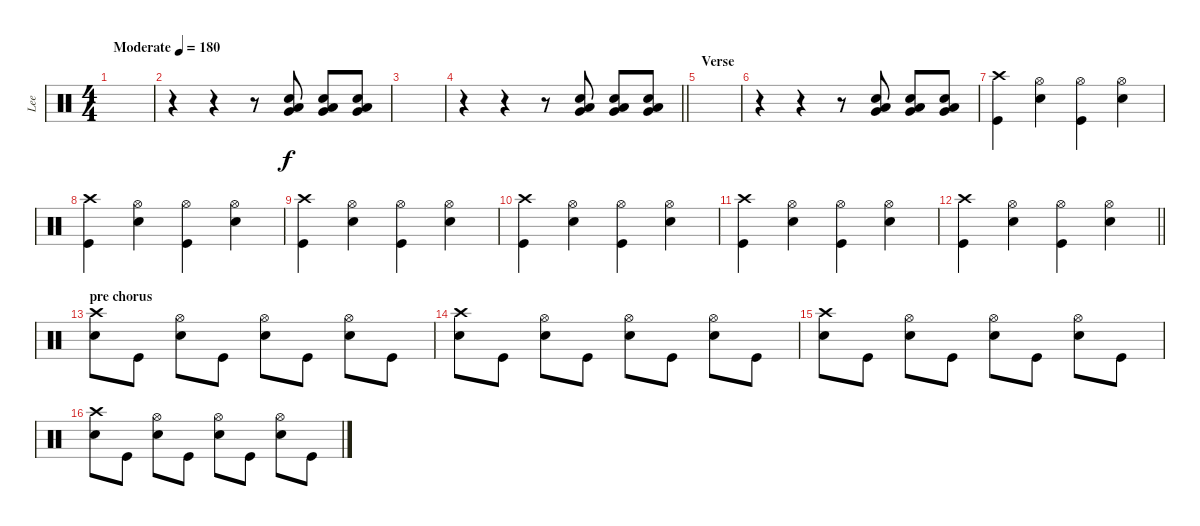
\track ("Lee" "Lee") {instrument percussion}
\staff {score}
\articulation defaults
\ts (4 4)
\tempo (180 "Moderate")
\clef neutral
\ks c
|
r.4 r.4 r.8 ("Very Low Tom (hit)" "Low Floor Tom (hit)" "Snare (hit) 2").8 ("Very Low Tom (hit)" "Low Floor Tom (hit)" "Snare (hit) 2").8 ("Very Low Tom (hit)" "Low Floor Tom (hit)" "Snare (hit) 2").8 |
|
\barLineRight lightlight
r.4 r.4 r.8 ("Very Low Tom (hit)" "Low Floor Tom (hit)" "Snare (hit) 2").8 ("Very Low Tom (hit)" "Low Floor Tom (hit)" "Snare (hit) 2").8 ("Very Low Tom (hit)" "Low Floor Tom (hit)" "Snare (hit) 2").8 |
\section ("" "Verse")
|
r.4 r.4 r.8 ("Very Low Tom (hit)" "Low Floor Tom (hit)" "Snare (hit) 2").8 ("Very Low Tom (hit)" "Low Floor Tom (hit)" "Snare (hit) 2").8 ("Very Low Tom (hit)" "Low Floor Tom (hit)" "Snare (hit) 2").8 |
("Kick (hit)" "Crash high (hit)").4 ("Snare (hit) 2" "Hi-Hat (open)").4 ("Kick (hit)" "Hi-Hat (open)").4 ("Snare (hit) 2" "Hi-Hat (open)").4 |
("Kick (hit)" "Crash high (hit)").4 ("Snare (hit) 2" "Hi-Hat (open)").4 ("Kick (hit)" "Hi-Hat (open)").4 ("Snare (hit) 2" "Hi-Hat (open)").4 |
("Kick (hit)" "Crash high (hit)").4 ("Snare (hit) 2" "Hi-Hat (open)").4 ("Kick (hit)" "Hi-Hat (open)").4 ("Snare (hit) 2" "Hi-Hat (open)").4 |
("Kick (hit)" "Crash high (hit)").4 ("Snare (hit) 2" "Hi-Hat (open)").4 ("Kick (hit)" "Hi-Hat (open)").4 ("Snare (hit) 2" "Hi-Hat (open)").4 |
("Kick (hit)" "Crash high (hit)").4 ("Snare (hit) 2" "Hi-Hat (open)").4 ("Kick (hit)" "Hi-Hat (open)").4 ("Snare (hit) 2" "Hi-Hat (open)").4 |
\barLineRight lightlight
("Kick (hit)" "Crash high (hit)").4 ("Snare (hit) 2" "Hi-Hat (open)").4 ("Kick (hit)" "Hi-Hat (open)").4 ("Snare (hit) 2" "Hi-Hat (open)").4 |
\section ("" "pre chorus")
("Snare (hit) 2" "Crash high (hit)").8 "Kick (hit)".8 ("Snare (hit) 2" "Hi-Hat (open)").8 "Kick (hit)".8 ("Snare (hit) 2" "Hi-Hat (open)").8 "Kick (hit)".8 ("Snare (hit) 2" "Hi-Hat (open)").8 "Kick (hit)".8 |
("Snare (hit) 2" "Crash high (hit)").8 "Kick (hit)".8 ("Snare (hit) 2" "Hi-Hat (open)").8 "Kick (hit)".8 ("Snare (hit) 2" "Hi-Hat (open)").8 "Kick (hit)".8 ("Snare (hit) 2" "Hi-Hat (open)").8 "Kick (hit)".8 |
("Snare (hit) 2" "Crash high (hit)").8 "Kick (hit)".8 ("Snare (hit) 2" "Hi-Hat (open)").8 "Kick (hit)".8 ("Snare (hit) 2" "Hi-Hat (open)").8 "Kick (hit)".8 ("Snare (hit) 2" "Hi-Hat (open)").8 "Kick (hit)".8 |
("Snare (hit) 2" "Crash high (hit)").8 "Kick (hit)".8 ("Snare (hit) 2" "Hi-Hat (open)").8 "Kick (hit)".8 ("Snare (hit) 2" "Hi-Hat (open)").8 "Kick (hit)".8 ("Snare (hit) 2" "Hi-Hat (open)").8 "Kick (hit)".8
